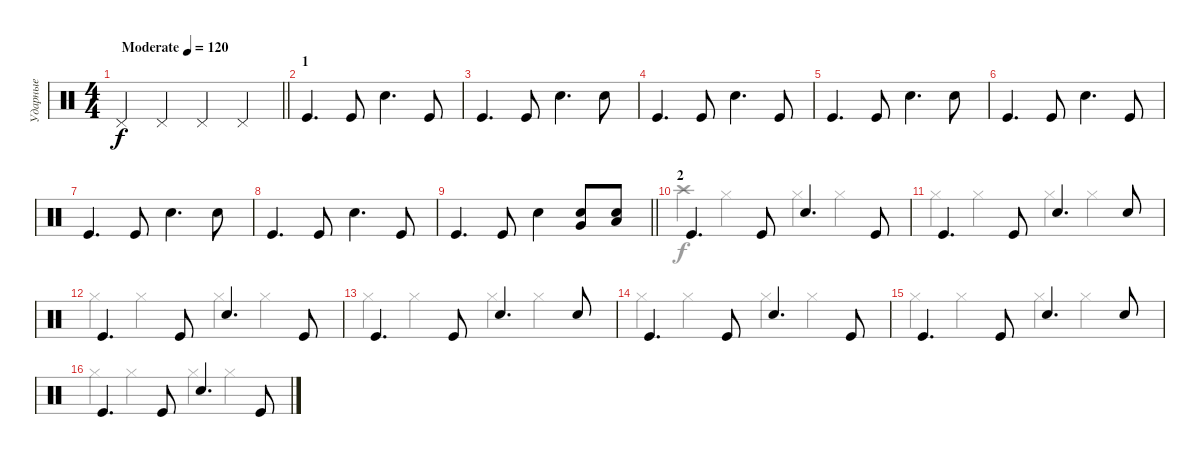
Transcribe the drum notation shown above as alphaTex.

\track ("Ударные" "Ударные") {instrument percussion}
\staff {score}
\articulation defaults
\voice
\ts (4 4)
\tempo (120 "Moderate")
\clef neutral
\barLineRight lightlight
\ks c "Pedal Hi-Hat (hit)".4{dy f} "Pedal Hi-Hat (hit)".4 "Pedal Hi-Hat (hit)".4 "Pedal Hi-Hat (hit)".4
|
\section ("" "1")
"Kick (hit)".4{d} "Kick (hit)".8 "Snare (hit) 2".4{d} "Kick (hit)".8 |
"Kick (hit)".4{d} "Kick (hit)".8 "Snare (hit) 2".4{d} "Snare (hit) 2".8 |
"Kick (hit)".4{d} "Kick (hit)".8 "Snare (hit) 2".4{d} "Kick (hit)".8 |
"Kick (hit)".4{d} "Kick (hit)".8 "Snare (hit) 2".4{d} "Snare (hit) 2".8 |
"Kick (hit)".4{d} "Kick (hit)".8 "Snare (hit) 2".4{d} "Kick (hit)".8 |
"Kick (hit)".4{d} "Kick (hit)".8 "Snare (hit) 2".4{d} "Snare (hit) 2".8 |
"Kick (hit)".4{d} "Kick (hit)".8 "Snare (hit) 2".4{d} "Kick (hit)".8 |
\barLineRight lightlight "Kick (hit)".4{d} "Kick (hit)".8 "Snare (hit) 2".4
("Snare (hit) 2" "Very Low Tom (hit)").8 ("Snare (hit) 2" "Low Floor Tom (hit)").8 |
\section ("" "2")
"Kick (hit)".4{d} "Kick (hit)".8 "Snare (hit) 2".4{d} "Kick (hit)".8 |
"Kick (hit)".4{d} "Kick (hit)".8 "Snare (hit) 2".4{d} "Snare (hit) 2".8 |
"Kick (hit)".4{d} "Kick (hit)".8 "Snare (hit) 2".4{d} "Kick (hit)".8 |
"Kick (hit)".4{d} "Kick (hit)".8 "Snare (hit) 2".4{d} "Snare (hit) 2".8 |
"Kick (hit)".4{d} "Kick (hit)".8 "Snare (hit) 2".4{d} "Kick (hit)".8 |
"Kick (hit)".4{d} "Kick (hit)".8 "Snare (hit) 2".4{d} "Snare (hit) 2".8 |
"Kick (hit)".4{d} "Kick (hit)".8 "Snare (hit) 2".4{d} "Kick (hit)".8
\voice
\clef neutral
\ottava regular
\simile none
\barLineRight lightlight
\ks c
|
|
|
|
|
|
|
|
\barLineRight lightlight
|
"Crash high (hit)".4 "Hi-Hat (closed)".4 "Hi-Hat (closed)".4 "Hi-Hat (closed)".4 |
"Hi-Hat (closed)".4 "Hi-Hat (closed)".4 "Hi-Hat (closed)".4 "Hi-Hat (closed)".4 |
"Hi-Hat (closed)".4 "Hi-Hat (closed)".4 "Hi-Hat (closed)".4 "Hi-Hat (closed)".4 |
"Hi-Hat (closed)".4 "Hi-Hat (closed)".4 "Hi-Hat (closed)".4 "Hi-Hat (closed)".4 |
"Hi-Hat (closed)".4 "Hi-Hat (closed)".4 "Hi-Hat (closed)".4 "Hi-Hat (closed)".4 |
"Hi-Hat (closed)".4 "Hi-Hat (closed)".4 "Hi-Hat (closed)".4 "Hi-Hat (closed)".4 |
"Hi-Hat (closed)".4 "Hi-Hat (closed)".4 "Hi-Hat (closed)".4 "Hi-Hat (closed)".4
